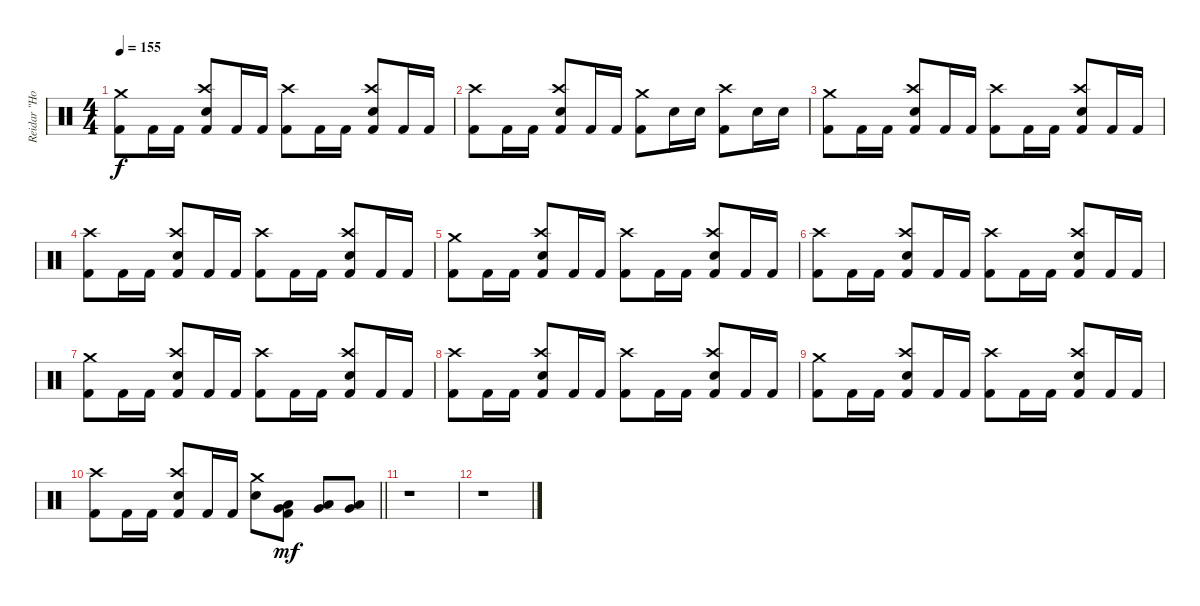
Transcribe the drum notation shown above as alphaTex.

\track ("Reidar \"Horgh\" Horghagen " "Reidar \"Ho") {instrument percussion}
\staff {score}
\articulation defaults
\ts (4 4)
\tempo 155
\clef neutral
\ks c
("Crash medium (hit)" "Kick (hit) 2").8{dy f} "Kick (hit) 2".16 "Kick (hit) 2".16 ("Crash high (hit)" "Snare (hit) 2" "Kick (hit) 2").8 "Kick (hit) 2".16 "Kick (hit) 2".16 ("Crash high (hit)" "Kick (hit) 2").8 "Kick (hit) 2".16 "Kick (hit) 2".16 ("Crash high (hit)" "Snare (hit) 2" "Kick (hit) 2").8 "Kick (hit) 2".16 "Kick (hit) 2".16 |
("Crash high (hit)" "Kick (hit) 2").8 "Kick (hit) 2".16 "Kick (hit) 2".16 ("Crash high (hit)" "Snare (hit) 2" "Kick (hit) 2").8 "Kick (hit) 2".16 "Kick (hit) 2".16 ("Crash medium (hit)" "Kick (hit) 2").8 "Snare (hit) 2".16 "Snare (hit) 2".16 ("Crash high (hit)" "Kick (hit) 2").8 "Snare (hit) 2".16 "Snare (hit) 2".16 |
("Crash medium (hit)" "Kick (hit) 2").8 "Kick (hit) 2".16 "Kick (hit) 2".16 ("Crash high (hit)" "Snare (hit) 2" "Kick (hit) 2").8 "Kick (hit) 2".16 "Kick (hit) 2".16 ("Crash high (hit)" "Kick (hit) 2").8 "Kick (hit) 2".16 "Kick (hit) 2".16 ("Crash high (hit)" "Snare (hit) 2" "Kick (hit) 2").8 "Kick (hit) 2".16 "Kick (hit) 2".16 |
("Crash high (hit)" "Kick (hit) 2").8 "Kick (hit) 2".16 "Kick (hit) 2".16 ("Crash high (hit)" "Snare (hit) 2" "Kick (hit) 2").8 "Kick (hit) 2".16 "Kick (hit) 2".16 ("Crash high (hit)" "Kick (hit) 2").8 "Kick (hit) 2".16 "Kick (hit) 2".16 ("Crash high (hit)" "Snare (hit) 2" "Kick (hit) 2").8 "Kick (hit) 2".16 "Kick (hit) 2".16 |
("Crash medium (hit)" "Kick (hit) 2").8 "Kick (hit) 2".16 "Kick (hit) 2".16 ("Crash high (hit)" "Snare (hit) 2" "Kick (hit) 2").8 "Kick (hit) 2".16 "Kick (hit) 2".16 ("Crash high (hit)" "Kick (hit) 2").8 "Kick (hit) 2".16 "Kick (hit) 2".16 ("Crash high (hit)" "Snare (hit) 2" "Kick (hit) 2").8 "Kick (hit) 2".16 "Kick (hit) 2".16 |
("Crash high (hit)" "Kick (hit) 2").8 "Kick (hit) 2".16 "Kick (hit) 2".16 ("Crash high (hit)" "Snare (hit) 2" "Kick (hit) 2").8 "Kick (hit) 2".16 "Kick (hit) 2".16 ("Crash high (hit)" "Kick (hit) 2").8 "Kick (hit) 2".16 "Kick (hit) 2".16 ("Crash high (hit)" "Snare (hit) 2" "Kick (hit) 2").8 "Kick (hit) 2".16 "Kick (hit) 2".16 |
("Crash medium (hit)" "Kick (hit) 2").8 "Kick (hit) 2".16 "Kick (hit) 2".16 ("Crash high (hit)" "Snare (hit) 2" "Kick (hit) 2").8 "Kick (hit) 2".16 "Kick (hit) 2".16 ("Crash high (hit)" "Kick (hit) 2").8 "Kick (hit) 2".16 "Kick (hit) 2".16 ("Crash high (hit)" "Snare (hit) 2" "Kick (hit) 2").8 "Kick (hit) 2".16 "Kick (hit) 2".16 |
("Crash high (hit)" "Kick (hit) 2").8 "Kick (hit) 2".16 "Kick (hit) 2".16 ("Crash high (hit)" "Snare (hit) 2" "Kick (hit) 2").8 "Kick (hit) 2".16 "Kick (hit) 2".16 ("Crash high (hit)" "Kick (hit) 2").8 "Kick (hit) 2".16 "Kick (hit) 2".16 ("Crash high (hit)" "Snare (hit) 2" "Kick (hit) 2").8 "Kick (hit) 2".16 "Kick (hit) 2".16 |
("Crash medium (hit)" "Kick (hit) 2").8 "Kick (hit) 2".16 "Kick (hit) 2".16 ("Crash high (hit)" "Snare (hit) 2" "Kick (hit) 2").8 "Kick (hit) 2".16 "Kick (hit) 2".16 ("Crash high (hit)" "Kick (hit) 2").8 "Kick (hit) 2".16 "Kick (hit) 2".16 ("Crash high (hit)" "Snare (hit) 2" "Kick (hit) 2").8 "Kick (hit) 2".16 "Kick (hit) 2".16 |
\barLineRight lightlight
("Crash high (hit)" "Kick (hit) 2").8 "Kick (hit) 2".16 "Kick (hit) 2".16 ("Crash high (hit)" "Snare (hit) 2" "Kick (hit) 2").8 "Kick (hit) 2".16 "Kick (hit) 2".16 ("Crash medium (hit)" "Snare (hit) 2").8 ("Low Tom (hit)" "Very Low Tom (hit)" "Kick (hit) 2").8{dy mf} ("Very Low Tom (hit)" "Low Floor Tom (hit)").8 ("Very Low Tom (hit)" "Low Floor Tom (hit)").8 |
r.1 |
r.1
